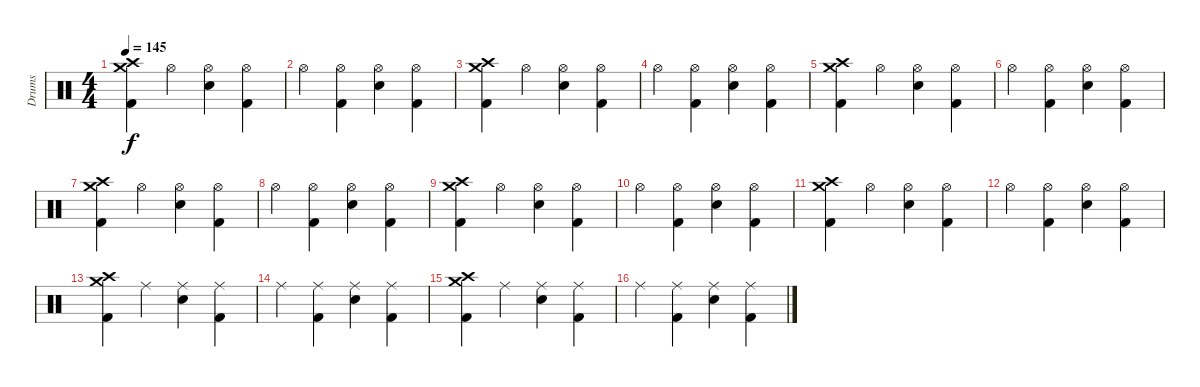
\track ("Drums" "Drums") {instrument percussion}
\staff {score}
\articulation defaults
\ts (4 4)
\tempo 145
\clef neutral
\ks c
("Crash medium (hit)" "Crash high (hit)" "Kick (hit) 2").4{dy f} "Hi-Hat (open)".4 ("Hi-Hat (open)" "Snare (hit) 2").4 ("Hi-Hat (open)" "Kick (hit) 2").4 |
"Hi-Hat (open)".4 ("Hi-Hat (open)" "Kick (hit) 2").4 ("Hi-Hat (open)" "Snare (hit) 2").4 ("Hi-Hat (open)" "Kick (hit) 2").4 |
("Crash medium (hit)" "Crash high (hit)" "Kick (hit) 2").4 "Hi-Hat (open)".4 ("Hi-Hat (open)" "Snare (hit) 2").4 ("Hi-Hat (open)" "Kick (hit) 2").4 |
"Hi-Hat (open)".4 ("Hi-Hat (open)" "Kick (hit) 2").4 ("Hi-Hat (open)" "Snare (hit) 2").4 ("Hi-Hat (open)" "Kick (hit) 2").4 |
("Crash medium (hit)" "Crash high (hit)" "Kick (hit) 2").4 "Hi-Hat (open)".4 ("Hi-Hat (open)" "Snare (hit) 2").4 ("Hi-Hat (open)" "Kick (hit) 2").4 |
"Hi-Hat (open)".4 ("Hi-Hat (open)" "Kick (hit) 2").4 ("Hi-Hat (open)" "Snare (hit) 2").4 ("Hi-Hat (open)" "Kick (hit) 2").4 |
("Crash medium (hit)" "Crash high (hit)" "Kick (hit) 2").4 "Hi-Hat (open)".4 ("Hi-Hat (open)" "Snare (hit) 2").4 ("Hi-Hat (open)" "Kick (hit) 2").4 |
"Hi-Hat (open)".4 ("Hi-Hat (open)" "Kick (hit) 2").4 ("Hi-Hat (open)" "Snare (hit) 2").4 ("Hi-Hat (open)" "Kick (hit) 2").4 |
("Crash medium (hit)" "Crash high (hit)" "Kick (hit) 2").4 "Hi-Hat (open)".4 ("Hi-Hat (open)" "Snare (hit) 2").4 ("Hi-Hat (open)" "Kick (hit) 2").4 |
"Hi-Hat (open)".4 ("Hi-Hat (open)" "Kick (hit) 2").4 ("Hi-Hat (open)" "Snare (hit) 2").4 ("Hi-Hat (open)" "Kick (hit) 2").4 |
("Crash medium (hit)" "Crash high (hit)" "Kick (hit) 2").4 "Hi-Hat (open)".4 ("Hi-Hat (open)" "Snare (hit) 2").4 ("Hi-Hat (open)" "Kick (hit) 2").4 |
"Hi-Hat (open)".4 ("Hi-Hat (open)" "Kick (hit) 2").4 ("Hi-Hat (open)" "Snare (hit) 2").4 ("Hi-Hat (open)" "Kick (hit) 2").4 |
("Crash medium (hit)" "Crash high (hit)" "Kick (hit) 2").4 "Ride (middle)".4 ("Ride (middle)" "Snare (hit) 2").4 ("Ride (middle)" "Kick (hit) 2").4 |
"Ride (middle)".4 ("Ride (middle)" "Kick (hit) 2").4 ("Ride (middle)" "Snare (hit) 2").4 ("Ride (middle)" "Kick (hit) 2").4 |
("Crash medium (hit)" "Crash high (hit)" "Kick (hit) 2").4 "Ride (middle)".4 ("Ride (middle)" "Snare (hit) 2").4 ("Ride (middle)" "Kick (hit) 2").4 |
"Ride (middle)".4 ("Ride (middle)" "Kick (hit) 2").4 ("Ride (middle)" "Snare (hit) 2").4 ("Ride (middle)" "Kick (hit) 2").4
